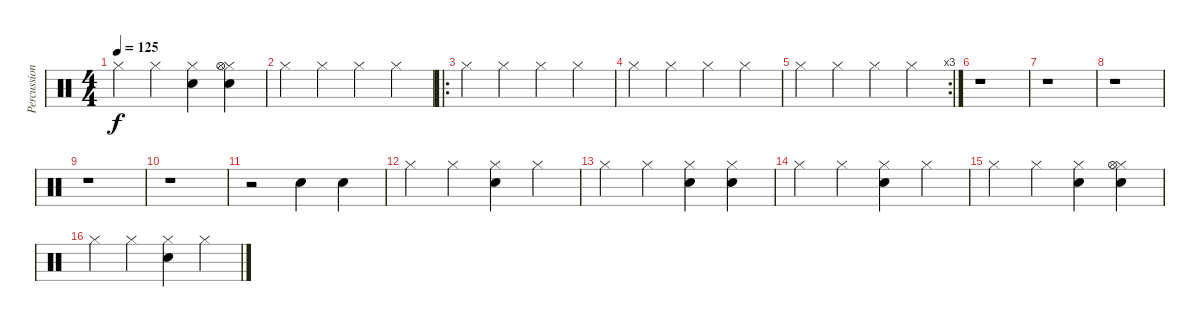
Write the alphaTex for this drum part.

\track ("Percussion" "Percussion") {instrument percussion}
\staff {score}
\articulation defaults
\ts (4 4)
\tempo 125
\clef neutral
\ks c "Hi-Hat (closed)".4{dy f} "Hi-Hat (closed)".4
("Hi-Hat (closed)" "Snare (hit) 2").4 ("Hi-Hat (closed)" "Snare (hit) 2" "Hi-Hat (open)").4 |
"Hi-Hat (closed)".4 "Hi-Hat (closed)".4 "Hi-Hat (closed)".4 "Hi-Hat (closed)".4 |
\ro "Hi-Hat (closed)".4 "Hi-Hat (closed)".4 "Hi-Hat (closed)".4 "Hi-Hat (closed)".4
|
"Hi-Hat (closed)".4 "Hi-Hat (closed)".4 "Hi-Hat (closed)".4 "Hi-Hat (closed)".4 |
\rc 3 "Hi-Hat (closed)".4 "Hi-Hat (closed)".4 "Hi-Hat (closed)".4 "Hi-Hat (closed)".4
|
r.1 |
r.1 |
r.1 |
r.1 |
r.1 |
r.2 "Snare (hit) 2".4 "Snare (hit) 2".4 |
"Hi-Hat (closed)".4 "Hi-Hat (closed)".4 ("Hi-Hat (closed)" "Snare (hit) 2").4 "Hi-Hat (closed)".4 |
"Hi-Hat (closed)".4 "Hi-Hat (closed)".4 ("Hi-Hat (closed)" "Snare (hit) 2").4 ("Hi-Hat (closed)" "Snare (hit) 2").4 |
"Hi-Hat (closed)".4 "Hi-Hat (closed)".4 ("Hi-Hat (closed)" "Snare (hit) 2").4 "Hi-Hat (closed)".4 |
"Hi-Hat (closed)".4 "Hi-Hat (closed)".4 ("Hi-Hat (closed)" "Snare (hit) 2").4 ("Hi-Hat (closed)" "Snare (hit) 2" "Hi-Hat (open)").4 |
"Hi-Hat (closed)".4 "Hi-Hat (closed)".4 ("Hi-Hat (closed)" "Snare (hit) 2").4 "Hi-Hat (closed)".4
